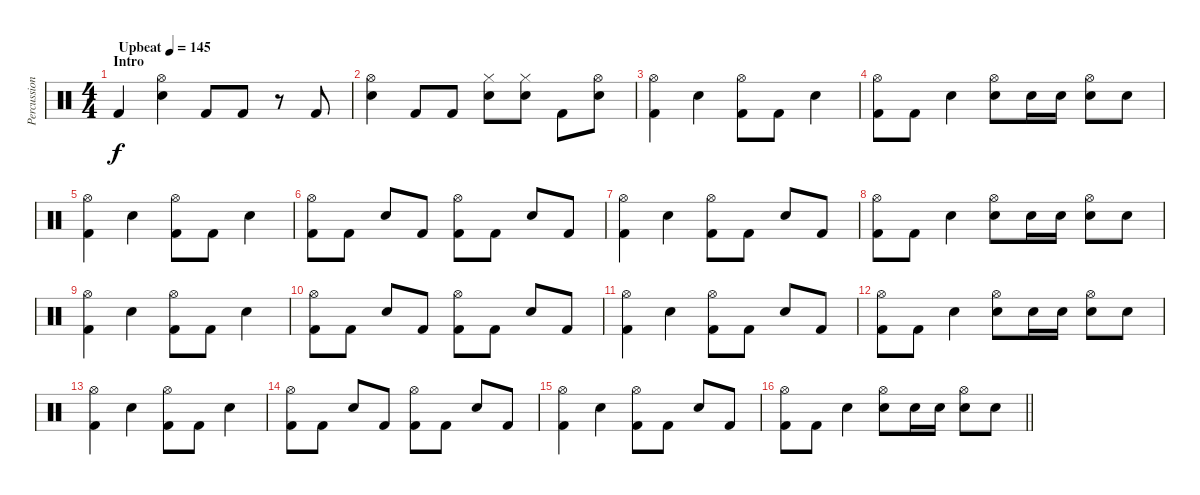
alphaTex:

\track ("Percussion" "Percussion") {instrument percussion}
\staff {score}
\articulation defaults
\ts (4 4)
\section ("" "Intro")
\tempo (145 "Upbeat")
\clef neutral
\ks c "Kick (hit) 2".4{dy f}
("Hi-Hat (open)" "Electric Snare (hit)").4 "Kick (hit) 2".8 "Kick (hit) 2".8 r.8 "Kick (hit) 2".8 |
("Hi-Hat (open)" "Electric Snare (hit)").4 "Kick (hit) 2".8 "Kick (hit) 2".8 ("Hi-Hat (closed)" "Electric Snare (hit)").8 ("Hi-Hat (closed)" "Electric Snare (hit)").8 "Kick (hit) 2".8 ("Hi-Hat (open)" "Electric Snare (hit)").8 |
("Hi-Hat (open)" "Kick (hit) 2").4 "Electric Snare (hit)".4 ("Hi-Hat (open)" "Kick (hit) 2").8 "Kick (hit) 2".8 "Electric Snare (hit)".4 |
("Hi-Hat (open)" "Kick (hit) 2").8 "Kick (hit) 2".8 "Electric Snare (hit)".4 ("Hi-Hat (open)" "Electric Snare (hit)").8 "Electric Snare (hit)".16 "Electric Snare (hit)".16 ("Hi-Hat (open)" "Electric Snare (hit)").8 "Electric Snare (hit)".8 |
("Hi-Hat (open)" "Kick (hit) 2").4 "Electric Snare (hit)".4 ("Hi-Hat (open)" "Kick (hit) 2").8 "Kick (hit) 2".8 "Electric Snare (hit)".4 |
("Hi-Hat (open)" "Kick (hit) 2").8 "Kick (hit) 2".8 "Electric Snare (hit)".8 "Kick (hit) 2".8 ("Hi-Hat (open)" "Kick (hit) 2").8 "Kick (hit) 2".8 "Electric Snare (hit)".8 "Kick (hit) 2".8 |
("Hi-Hat (open)" "Kick (hit) 2").4 "Electric Snare (hit)".4 ("Hi-Hat (open)" "Kick (hit) 2").8 "Kick (hit) 2".8 "Electric Snare (hit)".8 "Kick (hit) 2".8 |
("Hi-Hat (open)" "Kick (hit) 2").8 "Kick (hit) 2".8 "Electric Snare (hit)".4 ("Hi-Hat (open)" "Electric Snare (hit)").8 "Electric Snare (hit)".16 "Electric Snare (hit)".16 ("Hi-Hat (open)" "Electric Snare (hit)").8 "Electric Snare (hit)".8 |
("Hi-Hat (open)" "Kick (hit) 2").4 "Electric Snare (hit)".4 ("Hi-Hat (open)" "Kick (hit) 2").8 "Kick (hit) 2".8 "Electric Snare (hit)".4 |
("Hi-Hat (open)" "Kick (hit) 2").8 "Kick (hit) 2".8 "Electric Snare (hit)".8 "Kick (hit) 2".8 ("Hi-Hat (open)" "Kick (hit) 2").8 "Kick (hit) 2".8 "Electric Snare (hit)".8 "Kick (hit) 2".8 |
("Hi-Hat (open)" "Kick (hit) 2").4 "Electric Snare (hit)".4 ("Hi-Hat (open)" "Kick (hit) 2").8 "Kick (hit) 2".8 "Electric Snare (hit)".8 "Kick (hit) 2".8 |
("Hi-Hat (open)" "Kick (hit) 2").8 "Kick (hit) 2".8 "Electric Snare (hit)".4 ("Hi-Hat (open)" "Electric Snare (hit)").8 "Electric Snare (hit)".16 "Electric Snare (hit)".16 ("Hi-Hat (open)" "Electric Snare (hit)").8 "Electric Snare (hit)".8 |
("Hi-Hat (open)" "Kick (hit) 2").4 "Electric Snare (hit)".4 ("Hi-Hat (open)" "Kick (hit) 2").8 "Kick (hit) 2".8 "Electric Snare (hit)".4 |
("Hi-Hat (open)" "Kick (hit) 2").8 "Kick (hit) 2".8 "Electric Snare (hit)".8 "Kick (hit) 2".8 ("Hi-Hat (open)" "Kick (hit) 2").8 "Kick (hit) 2".8 "Electric Snare (hit)".8 "Kick (hit) 2".8 |
("Hi-Hat (open)" "Kick (hit) 2").4 "Electric Snare (hit)".4 ("Hi-Hat (open)" "Kick (hit) 2").8 "Kick (hit) 2".8 "Electric Snare (hit)".8 "Kick (hit) 2".8 |
\barLineRight lightlight
("Hi-Hat (open)" "Kick (hit) 2").8 "Kick (hit) 2".8 "Electric Snare (hit)".4 ("Hi-Hat (open)" "Electric Snare (hit)").8 "Electric Snare (hit)".16 "Electric Snare (hit)".16 ("Hi-Hat (open)" "Electric Snare (hit)").8 "Electric Snare (hit)".8
